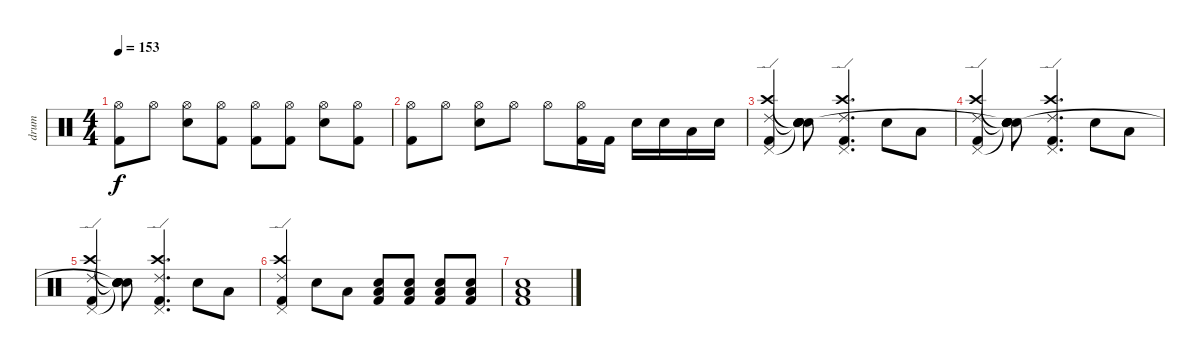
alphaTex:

\track ("drum" "drum") {instrument percussion}
\staff {score}
\articulation defaults
\ts (4 4)
\tempo 153
\clef neutral
\ks c
("Hi-Hat (open)" "Kick (hit) 2").8{dy f} "Hi-Hat (open)".8 ("Hi-Hat (open)" "Snare (hit) 2").8 ("Hi-Hat (open)" "Kick (hit) 2").8 ("Hi-Hat (open)" "Kick (hit) 2").8 ("Hi-Hat (open)" "Kick (hit) 2").8 ("Hi-Hat (open)" "Snare (hit) 2").8 ("Hi-Hat (open)" "Kick (hit) 2").8 |
("Hi-Hat (open)" "Kick (hit) 2").8 "Hi-Hat (open)".8 ("Hi-Hat (open)" "Snare (hit) 2").8 "Hi-Hat (open)".8 "Hi-Hat (open)".8 ("Hi-Hat (open)" "Kick (hit) 2").16 "Kick (hit) 2".16 "Snare (hit) 2".16 "Snare (hit) 2".16 "Low Tom (hit)".16 "Snare (hit) 2".16 |
("Ride (edge) 2" "Crash high (hit)" "Pedal Hi-Hat (hit)" "Kick (hit) 2").4 ("Snare (hit)"{t} "Snare (hit)"{t} "Snare (hit)"{t} "Electric Snare (hit)" "Snare (hit)").8 ("Ride (edge) 2" "Crash high (hit)" "Pedal Hi-Hat (hit)" "Kick (hit) 2").4{d} "Electric Snare (hit)".8 "Low Tom (hit)".8 |
("Ride (edge) 2" "Crash high (hit)" "Pedal Hi-Hat (hit)" "Kick (hit) 2").4 ("Snare (hit)"{t} "Snare (hit)"{t} "Snare (hit)"{t} "Electric Snare (hit)" "Snare (hit)"{t}).8 ("Ride (edge) 2" "Crash high (hit)" "Pedal Hi-Hat (hit)" "Kick (hit) 2").4{d} "Electric Snare (hit)".8 "Low Tom (hit)".8 |
("Ride (edge) 2" "Crash high (hit)" "Pedal Hi-Hat (hit)" "Kick (hit) 2").4 ("Snare (hit)"{t} "Snare (hit)"{t} "Snare (hit)"{t} "Electric Snare (hit)" "Snare (hit)"{t}).8 ("Ride (edge) 2" "Crash high (hit)" "Pedal Hi-Hat (hit)" "Kick (hit) 2").4{d} "Electric Snare (hit)".8 "Low Tom (hit)".8 |
\ks aminor
("Ride (edge) 2" "Crash high (hit)" "Pedal Hi-Hat (hit)" "Kick (hit) 2").4 "Electric Snare (hit)".8 "Low Tom (hit)".8 ("Low Tom (hit)" "Electric Snare (hit)" "Kick (hit) 2").8 ("Low Tom (hit)" "Electric Snare (hit)" "Kick (hit) 2").8 ("Low Tom (hit)" "Electric Snare (hit)" "Kick (hit) 2").8 ("Low Tom (hit)" "Electric Snare (hit)" "Kick (hit) 2").8 |
("Low Tom (hit)" "Electric Snare (hit)" "Kick (hit) 2").1
